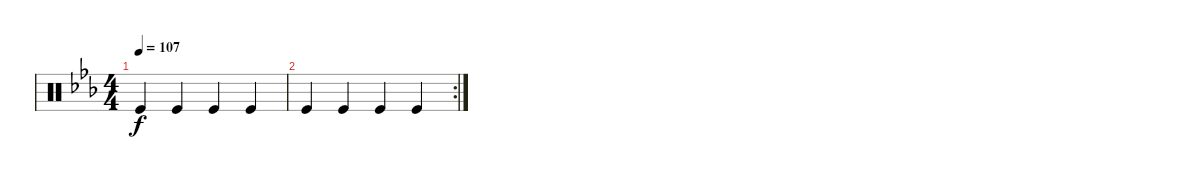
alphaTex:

\defaultSystemsLayout 4
\bracketExtendMode groupsimilarinstruments
\singleTrackTrackNamePolicy hidden
\firstSystemTrackNameOrientation horizontal
\otherSystemsTrackNameOrientation horizontal
\chordDiagramsInScore
\track ("Tambourine" "Tamb.") {instrument percussion}
\staff {score}
\articulation defaults
\ts (4 4)
\tempo 107
\clef neutral
\ks cminor "Kick (hit)".4{dy f} "Kick (hit)".4 "Kick (hit)".4 "Kick (hit)".4
|
\rc 2 "Kick (hit)".4 "Kick (hit)".4 "Kick (hit)".4 "Kick (hit)".4
